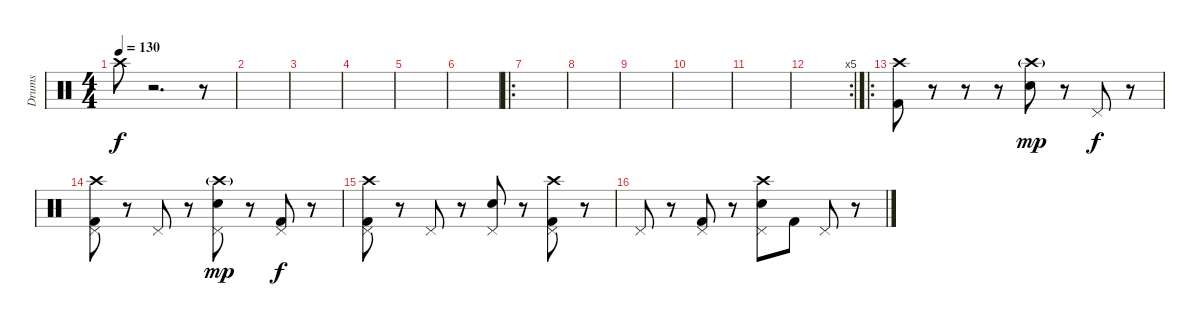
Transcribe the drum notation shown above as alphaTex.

\track ("Drums" "Drums") {instrument percussion}
\staff {score}
\articulation defaults
\ts (4 4)
\tempo 130
\clef neutral
\ks c "Crash high (hit)".8{dy f}
r.2{d} r.8 |
|
|
|
|
|
\ro
|
|
|
|
|
\rc 5
|
\ro
("Crash high (hit)" "Kick (hit) 2").8 r.8 r.8 r.8 ("Crash high (hit)"{g} "Snare (hit) 2").8{dy mp} r.8 "Pedal Hi-Hat (hit)".8{dy f} r.8 |
("Crash high (hit)" "Pedal Hi-Hat (hit)" "Kick (hit) 2").8 r.8 "Pedal Hi-Hat (hit)".8 r.8 ("Crash high (hit)"{g} "Snare (hit) 2" "Pedal Hi-Hat (hit)").8{dy mp} r.8 ("Pedal Hi-Hat (hit)" "Kick (hit) 2").8{dy f} r.8 |
("Crash high (hit)" "Pedal Hi-Hat (hit)" "Kick (hit) 2").8 r.8 "Pedal Hi-Hat (hit)".8 r.8 ("Snare (hit) 2" "Pedal Hi-Hat (hit)").8 r.8 ("Crash high (hit)" "Pedal Hi-Hat (hit)" "Kick (hit) 2").8 r.8 |
"Pedal Hi-Hat (hit)".8 r.8 ("Pedal Hi-Hat (hit)" "Kick (hit) 2").8 r.8 ("Crash high (hit)" "Snare (hit) 2" "Pedal Hi-Hat (hit)").8 "Kick (hit) 2".8 "Pedal Hi-Hat (hit)".8 r.8
